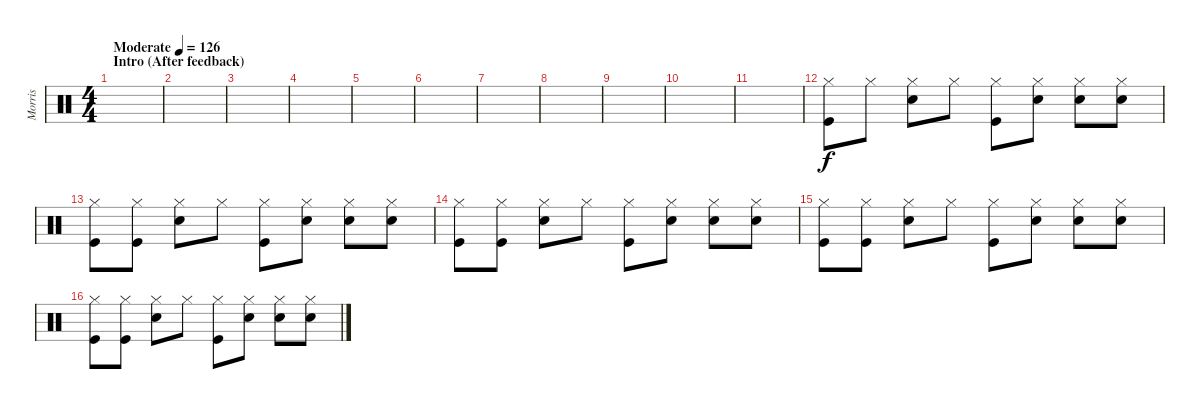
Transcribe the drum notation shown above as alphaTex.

\track ("Morris" "Morris") {instrument percussion}
\staff {score}
\articulation defaults
\ts (4 4)
\section ("" "Intro (After feedback)")
\tempo (126 "Moderate")
\clef neutral
\ks c
|
|
|
|
|
|
|
|
|
|
|
("Hi-Hat (closed)" "Kick (hit)").8 "Hi-Hat (closed)".8 ("Hi-Hat (closed)" "Electric Snare (hit)").8 "Hi-Hat (closed)".8 ("Hi-Hat (closed)" "Kick (hit)").8 ("Hi-Hat (closed)" "Electric Snare (hit)").8 ("Hi-Hat (closed)" "Electric Snare (hit)").8 ("Hi-Hat (closed)" "Electric Snare (hit)").8 |
("Hi-Hat (closed)" "Kick (hit)").8 ("Hi-Hat (closed)" "Kick (hit)").8 ("Hi-Hat (closed)" "Electric Snare (hit)").8 "Hi-Hat (closed)".8 ("Hi-Hat (closed)" "Kick (hit)").8 ("Hi-Hat (closed)" "Electric Snare (hit)").8 ("Hi-Hat (closed)" "Electric Snare (hit)").8 ("Hi-Hat (closed)" "Electric Snare (hit)").8 |
("Hi-Hat (closed)" "Kick (hit)").8 ("Hi-Hat (closed)" "Kick (hit)").8 ("Hi-Hat (closed)" "Electric Snare (hit)").8 "Hi-Hat (closed)".8 ("Hi-Hat (closed)" "Kick (hit)").8 ("Hi-Hat (closed)" "Electric Snare (hit)").8 ("Hi-Hat (closed)" "Electric Snare (hit)").8 ("Hi-Hat (closed)" "Electric Snare (hit)").8 |
("Hi-Hat (closed)" "Kick (hit)").8 ("Hi-Hat (closed)" "Kick (hit)").8 ("Hi-Hat (closed)" "Electric Snare (hit)").8 "Hi-Hat (closed)".8 ("Hi-Hat (closed)" "Kick (hit)").8 ("Hi-Hat (closed)" "Electric Snare (hit)").8 ("Hi-Hat (closed)" "Electric Snare (hit)").8 ("Hi-Hat (closed)" "Electric Snare (hit)").8 |
("Hi-Hat (closed)" "Kick (hit)").8 ("Hi-Hat (closed)" "Kick (hit)").8 ("Hi-Hat (closed)" "Electric Snare (hit)").8 "Hi-Hat (closed)".8 ("Hi-Hat (closed)" "Kick (hit)").8 ("Hi-Hat (closed)" "Electric Snare (hit)").8 ("Hi-Hat (closed)" "Electric Snare (hit)").8 ("Hi-Hat (closed)" "Electric Snare (hit)").8
